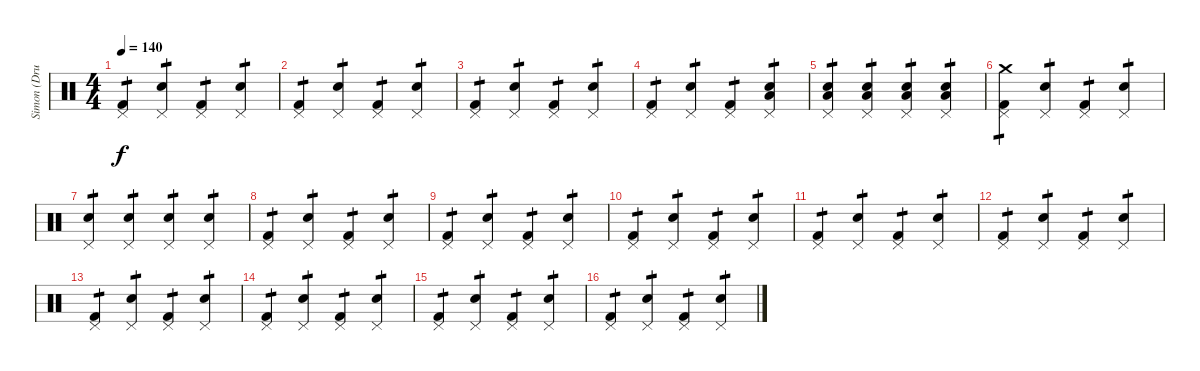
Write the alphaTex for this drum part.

\track ("Simon (Drums)" "Simon (Dru") {instrument percussion}
\staff {score}
\articulation defaults
\ts (4 4)
\tempo 140
\clef neutral
\ks c
("Kick (hit) 2" "Pedal Hi-Hat (hit)").4{tp 1 dy f} ("Snare (hit) 2" "Pedal Hi-Hat (hit)").4{tp 1} ("Kick (hit) 2" "Pedal Hi-Hat (hit)").4{tp 1} ("Snare (hit) 2" "Pedal Hi-Hat (hit)").4{tp 1} |
("Kick (hit) 2" "Pedal Hi-Hat (hit)").4{tp 1} ("Snare (hit) 2" "Pedal Hi-Hat (hit)").4{tp 1} ("Kick (hit) 2" "Pedal Hi-Hat (hit)").4{tp 1} ("Snare (hit) 2" "Pedal Hi-Hat (hit)").4{tp 1} |
("Kick (hit) 2" "Pedal Hi-Hat (hit)").4{tp 1} ("Snare (hit) 2" "Pedal Hi-Hat (hit)").4{tp 1} ("Kick (hit) 2" "Pedal Hi-Hat (hit)").4{tp 1} ("Snare (hit) 2" "Pedal Hi-Hat (hit)").4{tp 1} |
("Kick (hit) 2" "Pedal Hi-Hat (hit)").4{tp 1} ("Snare (hit) 2" "Pedal Hi-Hat (hit)").4{tp 1} ("Kick (hit) 2" "Pedal Hi-Hat (hit)").4{tp 1} ("Snare (hit) 2" "Low Floor Tom (hit)" "Pedal Hi-Hat (hit)").4{tp 1} |
("Snare (hit) 2" "Low Floor Tom (hit)" "Pedal Hi-Hat (hit)").4{tp 1} ("Snare (hit) 2" "Low Floor Tom (hit)" "Pedal Hi-Hat (hit)").4{tp 1} ("Snare (hit) 2" "Low Floor Tom (hit)" "Pedal Hi-Hat (hit)").4{tp 1} ("Snare (hit) 2" "Low Floor Tom (hit)" "Pedal Hi-Hat (hit)").4{tp 1} |
("Kick (hit) 2" "Crash medium (hit)" "Pedal Hi-Hat (hit)").4{tp 1} ("Snare (hit) 2" "Pedal Hi-Hat (hit)").4{tp 1} ("Kick (hit) 2" "Pedal Hi-Hat (hit)").4{tp 1} ("Snare (hit) 2" "Pedal Hi-Hat (hit)").4{tp 1} |
("Snare (hit) 2" "Pedal Hi-Hat (hit)").4{tp 1} ("Snare (hit) 2" "Pedal Hi-Hat (hit)").4{tp 1} ("Snare (hit) 2" "Pedal Hi-Hat (hit)").4{tp 1} ("Snare (hit) 2" "Pedal Hi-Hat (hit)").4{tp 1} |
("Kick (hit) 2" "Pedal Hi-Hat (hit)").4{tp 1} ("Snare (hit) 2" "Pedal Hi-Hat (hit)").4{tp 1} ("Kick (hit) 2" "Pedal Hi-Hat (hit)").4{tp 1} ("Snare (hit) 2" "Pedal Hi-Hat (hit)").4{tp 1} |
("Kick (hit) 2" "Pedal Hi-Hat (hit)").4{tp 1} ("Snare (hit) 2" "Pedal Hi-Hat (hit)").4{tp 1} ("Kick (hit) 2" "Pedal Hi-Hat (hit)").4{tp 1} ("Snare (hit) 2" "Pedal Hi-Hat (hit)").4{tp 1} |
("Kick (hit) 2" "Pedal Hi-Hat (hit)").4{tp 1} ("Snare (hit) 2" "Pedal Hi-Hat (hit)").4{tp 1} ("Kick (hit) 2" "Pedal Hi-Hat (hit)").4{tp 1} ("Snare (hit) 2" "Pedal Hi-Hat (hit)").4{tp 1} |
("Kick (hit) 2" "Pedal Hi-Hat (hit)").4{tp 1} ("Snare (hit) 2" "Pedal Hi-Hat (hit)").4{tp 1} ("Kick (hit) 2" "Pedal Hi-Hat (hit)").4{tp 1} ("Snare (hit) 2" "Pedal Hi-Hat (hit)").4{tp 1} |
("Kick (hit) 2" "Pedal Hi-Hat (hit)").4{tp 1} ("Snare (hit) 2" "Pedal Hi-Hat (hit)").4{tp 1} ("Kick (hit) 2" "Pedal Hi-Hat (hit)").4{tp 1} ("Snare (hit) 2" "Pedal Hi-Hat (hit)").4{tp 1} |
("Kick (hit) 2" "Pedal Hi-Hat (hit)").4{tp 1} ("Snare (hit) 2" "Pedal Hi-Hat (hit)").4{tp 1} ("Kick (hit) 2" "Pedal Hi-Hat (hit)").4{tp 1} ("Snare (hit) 2" "Pedal Hi-Hat (hit)").4{tp 1} |
("Kick (hit) 2" "Pedal Hi-Hat (hit)").4{tp 1} ("Snare (hit) 2" "Pedal Hi-Hat (hit)").4{tp 1} ("Kick (hit) 2" "Pedal Hi-Hat (hit)").4{tp 1} ("Snare (hit) 2" "Pedal Hi-Hat (hit)").4{tp 1} |
("Kick (hit) 2" "Pedal Hi-Hat (hit)").4{tp 1} ("Snare (hit) 2" "Pedal Hi-Hat (hit)").4{tp 1} ("Kick (hit) 2" "Pedal Hi-Hat (hit)").4{tp 1} ("Snare (hit) 2" "Pedal Hi-Hat (hit)").4{tp 1} |
("Kick (hit) 2" "Pedal Hi-Hat (hit)").4{tp 1} ("Snare (hit) 2" "Pedal Hi-Hat (hit)").4{tp 1} ("Kick (hit) 2" "Pedal Hi-Hat (hit)").4{tp 1} ("Snare (hit) 2" "Pedal Hi-Hat (hit)").4{tp 1}
